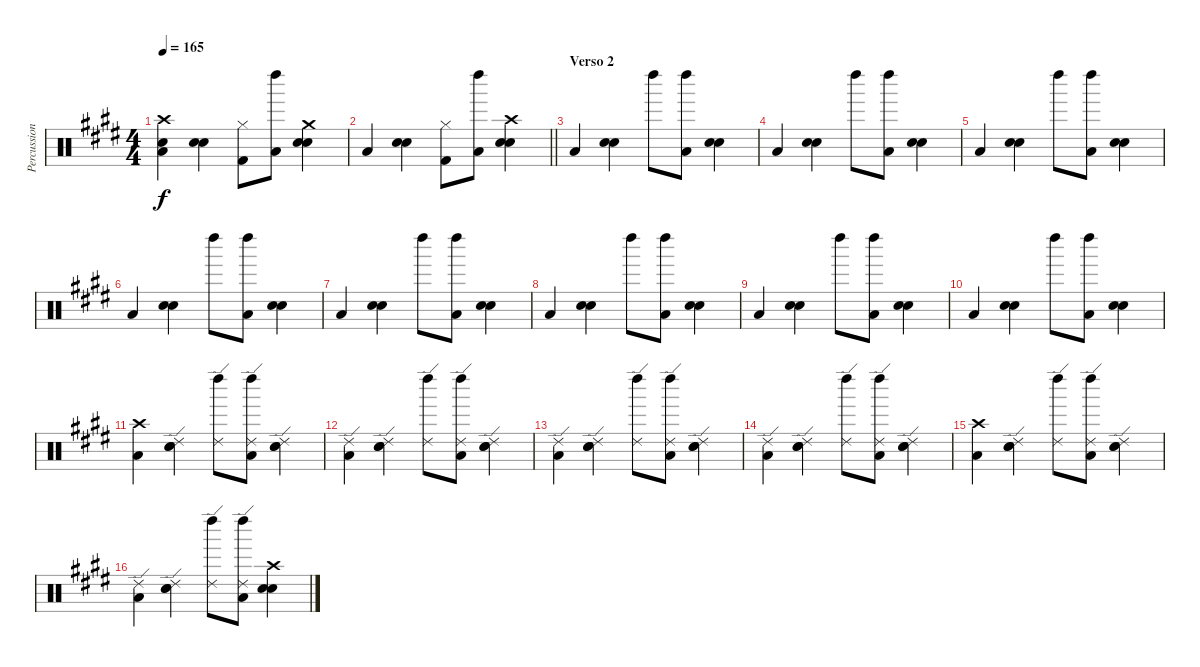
\track ("Percussioni" "Percussion") {instrument percussion}
\staff {score}
\articulation defaults
\ts (4 4)
\tempo 165
\clef neutral
\ks e
("Low Floor Tom (hit)" "Crash high (hit)" "Snare (hit) 2").4{dy f} ("Electric Snare (hit)" "Snare (hit) 2").4 ("Kick (hit) 2" "Hi-Hat (closed)").8 ("Low Floor Tom (hit)" "Left Maraca (hit)").8 ("Electric Snare (hit)" "Snare (hit) 2" "Crash medium (hit)").4 |
\barLineRight lightlight "Low Floor Tom (hit)".4
("Electric Snare (hit)" "Snare (hit) 2").4 ("Kick (hit) 2" "Hi-Hat (closed)").8 ("Low Floor Tom (hit)" "Left Maraca (hit)").8 ("Electric Snare (hit)" "Snare (hit) 2" "Crash high (hit)").4 |
\section ("" "Verso 2")
"Low Floor Tom (hit)".4 ("Electric Snare (hit)" "Snare (hit) 2").4 "Left Maraca (hit)".8 ("Low Floor Tom (hit)" "Left Maraca (hit)").8 ("Electric Snare (hit)" "Snare (hit) 2").4 |
"Low Floor Tom (hit)".4 ("Electric Snare (hit)" "Snare (hit) 2").4 "Left Maraca (hit)".8 ("Low Floor Tom (hit)" "Left Maraca (hit)").8 ("Electric Snare (hit)" "Snare (hit) 2").4 |
"Low Floor Tom (hit)".4 ("Electric Snare (hit)" "Snare (hit) 2").4 "Left Maraca (hit)".8 ("Low Floor Tom (hit)" "Left Maraca (hit)").8 ("Electric Snare (hit)" "Snare (hit) 2").4 |
"Low Floor Tom (hit)".4 ("Electric Snare (hit)" "Snare (hit) 2").4 "Left Maraca (hit)".8 ("Low Floor Tom (hit)" "Left Maraca (hit)").8 ("Electric Snare (hit)" "Snare (hit) 2").4 |
"Low Floor Tom (hit)".4 ("Electric Snare (hit)" "Snare (hit) 2").4 "Left Maraca (hit)".8 ("Low Floor Tom (hit)" "Left Maraca (hit)").8 ("Electric Snare (hit)" "Snare (hit) 2").4 |
"Low Floor Tom (hit)".4 ("Electric Snare (hit)" "Snare (hit) 2").4 "Left Maraca (hit)".8 ("Low Floor Tom (hit)" "Left Maraca (hit)").8 ("Electric Snare (hit)" "Snare (hit) 2").4 |
"Low Floor Tom (hit)".4 ("Electric Snare (hit)" "Snare (hit) 2").4 "Left Maraca (hit)".8 ("Low Floor Tom (hit)" "Left Maraca (hit)").8 ("Electric Snare (hit)" "Snare (hit) 2").4 |
"Low Floor Tom (hit)".4 ("Electric Snare (hit)" "Snare (hit) 2").4 "Left Maraca (hit)".8 ("Low Floor Tom (hit)" "Left Maraca (hit)").8 ("Electric Snare (hit)" "Snare (hit) 2").4 |
("Low Floor Tom (hit)" "Crash high (hit)").4 ("Electric Snare (hit)" "Snare (hit) 2" "Ride (edge) 2").4 ("Left Maraca (hit)" "Ride (edge) 2").8 ("Low Floor Tom (hit)" "Left Maraca (hit)" "Ride (edge) 2").8 ("Electric Snare (hit)" "Snare (hit) 2" "Ride (edge) 2").4 |
("Low Floor Tom (hit)" "Ride (edge) 2").4 ("Electric Snare (hit)" "Snare (hit) 2" "Ride (edge) 2").4 ("Left Maraca (hit)" "Ride (edge) 2").8 ("Low Floor Tom (hit)" "Left Maraca (hit)" "Ride (edge) 2").8 ("Electric Snare (hit)" "Snare (hit) 2" "Ride (edge) 2").4 |
("Low Floor Tom (hit)" "Ride (edge) 2").4 ("Electric Snare (hit)" "Snare (hit) 2" "Ride (edge) 2").4 ("Left Maraca (hit)" "Ride (edge) 2").8 ("Low Floor Tom (hit)" "Left Maraca (hit)" "Ride (edge) 2").8 ("Electric Snare (hit)" "Snare (hit) 2" "Ride (edge) 2").4 |
("Low Floor Tom (hit)" "Ride (edge) 2").4 ("Electric Snare (hit)" "Snare (hit) 2" "Ride (edge) 2").4 ("Left Maraca (hit)" "Ride (edge) 2").8 ("Low Floor Tom (hit)" "Left Maraca (hit)" "Ride (edge) 2").8 ("Electric Snare (hit)" "Snare (hit) 2" "Ride (edge) 2").4 |
("Low Floor Tom (hit)" "Crash high (hit)").4 ("Electric Snare (hit)" "Snare (hit) 2" "Ride (edge) 2").4 ("Left Maraca (hit)" "Ride (edge) 2").8 ("Low Floor Tom (hit)" "Left Maraca (hit)" "Ride (edge) 2").8 ("Electric Snare (hit)" "Snare (hit) 2" "Ride (edge) 2").4 |
("Low Floor Tom (hit)" "Ride (edge) 2").4 ("Electric Snare (hit)" "Snare (hit) 2" "Ride (edge) 2").4 ("Left Maraca (hit)" "Ride (edge) 2").8 ("Low Floor Tom (hit)" "Left Maraca (hit)" "Ride (edge) 2").8 ("Electric Snare (hit)" "Snare (hit) 2" "Crash high (hit)").4
